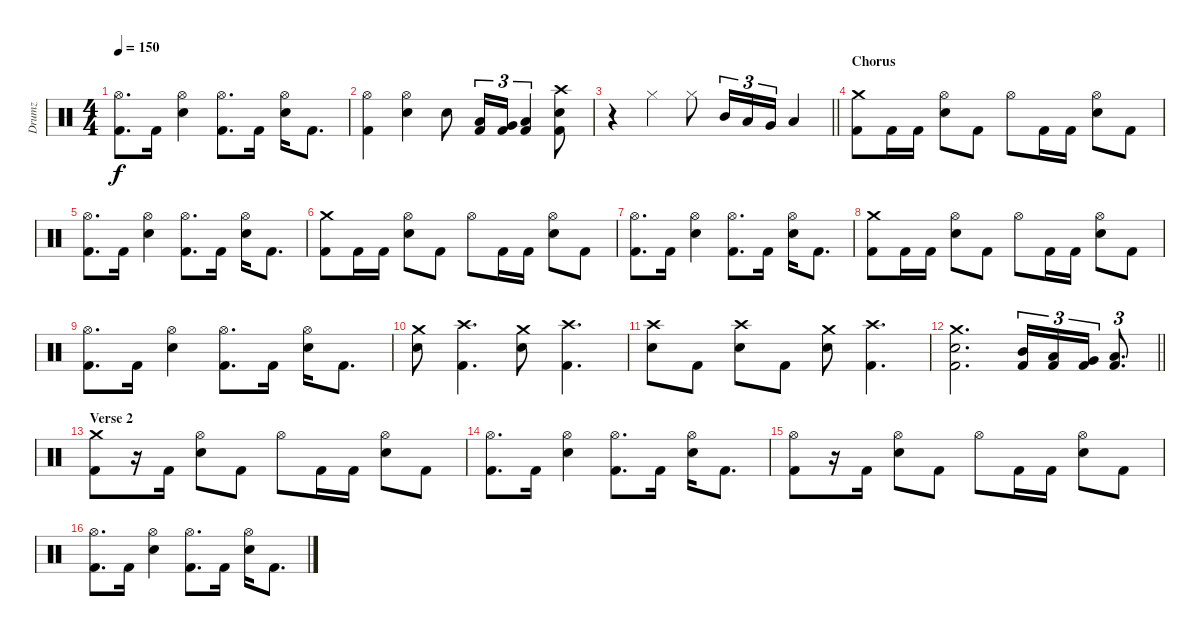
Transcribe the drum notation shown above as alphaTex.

\track ("Drumz" "Drumz") {instrument percussion}
\staff {score}
\articulation defaults
\ts (4 4)
\tempo 150
\clef neutral
\ks c
("Hi-Hat (open)" "Kick (hit) 2").8{d dy f} "Kick (hit) 2".16 ("Hi-Hat (open)" "Electric Snare (hit)").4 ("Hi-Hat (open)" "Kick (hit) 2").8{d} "Kick (hit) 2".16 ("Hi-Hat (open)" "Electric Snare (hit)").16 "Kick (hit) 2".8{d} |
("Hi-Hat (open)" "Kick (hit) 2").4 ("Hi-Hat (open)" "Electric Snare (hit)").4 "Electric Snare (hit)".8 ("Low Tom (hit)" "Kick (hit) 2").16{tu (3 2)} ("Very Low Tom (hit)" "Kick (hit) 2").16{tu (3 2)} ("Low Floor Tom (hit)" "Kick (hit) 2").4{tu (3 2)} ("Crash high (hit)" "Electric Snare (hit)" "Kick (hit) 2").8 |
\barLineRight lightlight
r.4 "Hi-Hat (closed)".4 "Hi-Hat (closed)".8 "Mid Tom (hit)".16{tu (3 2)} "Low Tom (hit)".16{tu (3 2)} "Very Low Tom (hit)".16{tu (3 2)} "Low Floor Tom (hit)".4 |
\section ("" "Chorus")
("Crash medium (hit)" "Kick (hit) 2").8 "Kick (hit) 2".16 "Kick (hit) 2".16 ("Hi-Hat (open)" "Electric Snare (hit)").8 "Kick (hit) 2".8 "Hi-Hat (open)".8 "Kick (hit) 2".16 "Kick (hit) 2".16 ("Hi-Hat (open)" "Electric Snare (hit)").8 "Kick (hit) 2".8 |
("Hi-Hat (open)" "Kick (hit) 2").8{d} "Kick (hit) 2".16 ("Hi-Hat (open)" "Electric Snare (hit)").4 ("Hi-Hat (open)" "Kick (hit) 2").8{d} "Kick (hit) 2".16 ("Hi-Hat (open)" "Electric Snare (hit)").16 "Kick (hit) 2".8{d} |
("Crash medium (hit)" "Kick (hit) 2").8 "Kick (hit) 2".16 "Kick (hit) 2".16 ("Hi-Hat (open)" "Electric Snare (hit)").8 "Kick (hit) 2".8 "Hi-Hat (open)".8 "Kick (hit) 2".16 "Kick (hit) 2".16 ("Hi-Hat (open)" "Electric Snare (hit)").8 "Kick (hit) 2".8 |
("Hi-Hat (open)" "Kick (hit) 2").8{d} "Kick (hit) 2".16 ("Hi-Hat (open)" "Electric Snare (hit)").4 ("Hi-Hat (open)" "Kick (hit) 2").8{d} "Kick (hit) 2".16 ("Hi-Hat (open)" "Electric Snare (hit)").16 "Kick (hit) 2".8{d} |
("Crash medium (hit)" "Kick (hit) 2").8 "Kick (hit) 2".16 "Kick (hit) 2".16 ("Hi-Hat (open)" "Electric Snare (hit)").8 "Kick (hit) 2".8 "Hi-Hat (open)".8 "Kick (hit) 2".16 "Kick (hit) 2".16 ("Hi-Hat (open)" "Electric Snare (hit)").8 "Kick (hit) 2".8 |
("Hi-Hat (open)" "Kick (hit) 2").8{d} "Kick (hit) 2".16 ("Hi-Hat (open)" "Electric Snare (hit)").4 ("Hi-Hat (open)" "Kick (hit) 2").8{d} "Kick (hit) 2".16 ("Hi-Hat (open)" "Electric Snare (hit)").16 "Kick (hit) 2".8{d} |
("Crash medium (hit)" "Electric Snare (hit)").8 ("Crash high (hit)" "Kick (hit) 2").4{d} ("Crash medium (hit)" "Electric Snare (hit)").8 ("Crash high (hit)" "Kick (hit) 2").4{d} |
("Crash high (hit)" "Electric Snare (hit)").8 "Kick (hit) 2".8 ("Crash high (hit)" "Electric Snare (hit)").8 "Kick (hit) 2".8 ("Crash medium (hit)" "Electric Snare (hit)").8 ("Crash high (hit)" "Kick (hit) 2").4{d} |
\barLineRight lightlight
("Crash medium (hit)" "Electric Snare (hit)" "Kick (hit) 2").2{d} ("Mid Tom (hit)" "Kick (hit) 2").16{tu (3 2)} ("Low Tom (hit)" "Kick (hit) 2").16{tu (3 2)} ("Very Low Tom (hit)" "Kick (hit) 2").16{tu (3 2)} ("Low Floor Tom (hit)" "Kick (hit) 2").8{d tu (3 2)} |
\section ("" "Verse 2")
("Crash medium (hit)" "Kick (hit) 2").8 r.16 "Kick (hit) 2".16 ("Hi-Hat (open)" "Electric Snare (hit)").8 "Kick (hit) 2".8 "Hi-Hat (open)".8 "Kick (hit) 2".16 "Kick (hit) 2".16 ("Hi-Hat (open)" "Electric Snare (hit)").8 "Kick (hit) 2".8 |
("Hi-Hat (open)" "Kick (hit) 2").8{d} "Kick (hit) 2".16 ("Hi-Hat (open)" "Electric Snare (hit)").4 ("Hi-Hat (open)" "Kick (hit) 2").8{d} "Kick (hit) 2".16 ("Hi-Hat (open)" "Electric Snare (hit)").16 "Kick (hit) 2".8{d} |
("Hi-Hat (open)" "Kick (hit) 2").8 r.16 "Kick (hit) 2".16 ("Hi-Hat (open)" "Electric Snare (hit)").8 "Kick (hit) 2".8 "Hi-Hat (open)".8 "Kick (hit) 2".16 "Kick (hit) 2".16 ("Hi-Hat (open)" "Electric Snare (hit)").8 "Kick (hit) 2".8 |
("Hi-Hat (open)" "Kick (hit) 2").8{d} "Kick (hit) 2".16 ("Hi-Hat (open)" "Electric Snare (hit)").4 ("Hi-Hat (open)" "Kick (hit) 2").8{d} "Kick (hit) 2".16 ("Hi-Hat (open)" "Electric Snare (hit)").16 "Kick (hit) 2".8{d}
